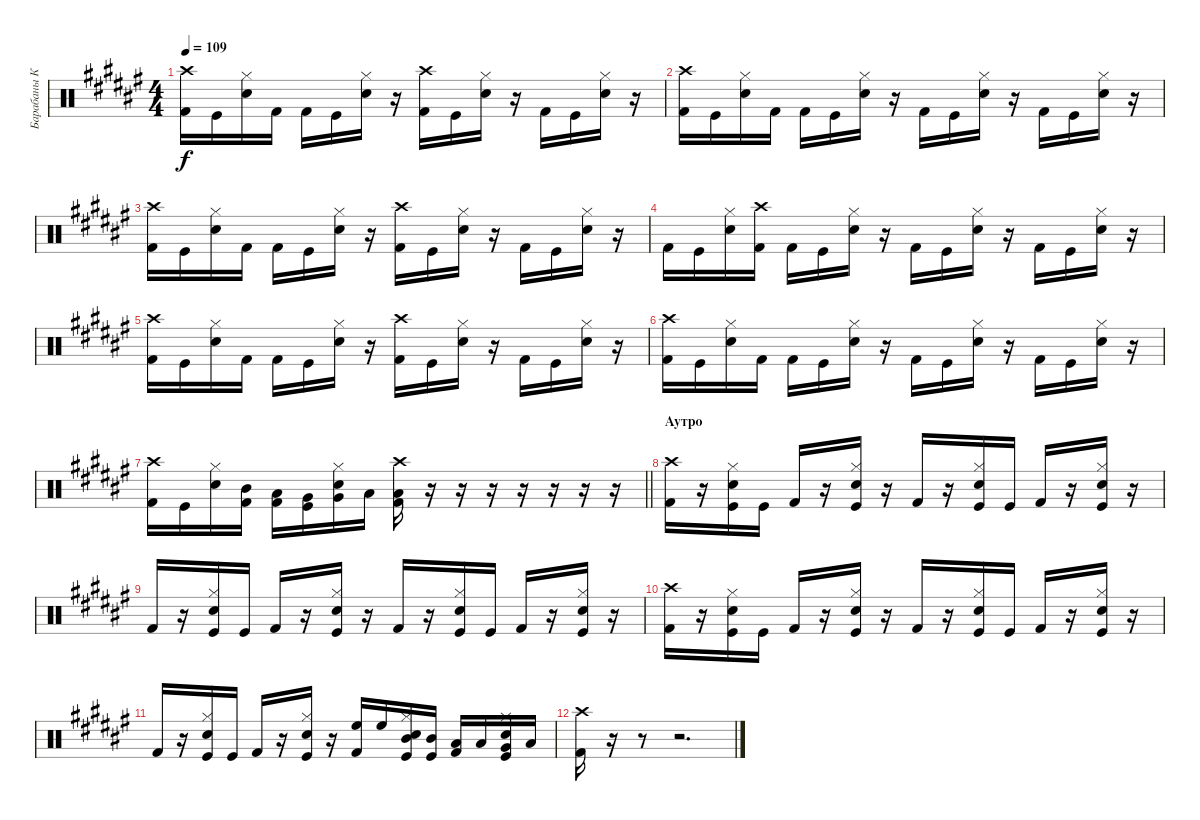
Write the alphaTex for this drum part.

\track ("Барабаны Кольян" "Барабаны К") {instrument percussion}
\staff {score}
\articulation defaults
\ts (4 4)
\tempo 109
\clef neutral
\ks f#
("Crash high (hit)" "Kick (hit) 2").16{dy f} "Kick (hit)".16 ("Hi-Hat (closed)" "Snare (hit) 2").16 "Kick (hit) 2".16 "Kick (hit) 2".16 "Kick (hit)".16 ("Hi-Hat (closed)" "Snare (hit) 2").16 r.16 ("Crash high (hit)" "Kick (hit) 2").16 "Kick (hit)".16 ("Hi-Hat (closed)" "Snare (hit) 2").16 r.16 "Kick (hit) 2".16 "Kick (hit)".16 ("Hi-Hat (closed)" "Snare (hit) 2").16 r.16 |
("Crash high (hit)" "Kick (hit) 2").16 "Kick (hit)".16 ("Hi-Hat (closed)" "Snare (hit) 2").16 "Kick (hit) 2".16 "Kick (hit) 2".16 "Kick (hit)".16 ("Hi-Hat (closed)" "Snare (hit) 2").16 r.16 "Kick (hit) 2".16 "Kick (hit)".16 ("Hi-Hat (closed)" "Snare (hit) 2").16 r.16 "Kick (hit) 2".16 "Kick (hit)".16 ("Hi-Hat (closed)" "Snare (hit) 2").16 r.16 |
("Crash high (hit)" "Kick (hit) 2").16 "Kick (hit)".16 ("Hi-Hat (closed)" "Snare (hit) 2").16 "Kick (hit) 2".16 "Kick (hit) 2".16 "Kick (hit)".16 ("Hi-Hat (closed)" "Snare (hit) 2").16 r.16 ("Crash high (hit)" "Kick (hit) 2").16 "Kick (hit)".16 ("Hi-Hat (closed)" "Snare (hit) 2").16 r.16 "Kick (hit) 2".16 "Kick (hit)".16 ("Hi-Hat (closed)" "Snare (hit) 2").16 r.16 |
"Kick (hit) 2".16 "Kick (hit)".16 ("Hi-Hat (closed)" "Snare (hit) 2").16 ("Crash high (hit)" "Kick (hit) 2").16 "Kick (hit) 2".16 "Kick (hit)".16 ("Hi-Hat (closed)" "Snare (hit) 2").16 r.16 "Kick (hit) 2".16 "Kick (hit)".16 ("Hi-Hat (closed)" "Snare (hit) 2").16 r.16 "Kick (hit) 2".16 "Kick (hit)".16 ("Hi-Hat (closed)" "Snare (hit) 2").16 r.16 |
("Crash high (hit)" "Kick (hit) 2").16 "Kick (hit)".16 ("Hi-Hat (closed)" "Snare (hit) 2").16 "Kick (hit) 2".16 "Kick (hit) 2".16 "Kick (hit)".16 ("Hi-Hat (closed)" "Snare (hit) 2").16 r.16 ("Crash high (hit)" "Kick (hit) 2").16 "Kick (hit)".16 ("Hi-Hat (closed)" "Snare (hit) 2").16 r.16 "Kick (hit) 2".16 "Kick (hit)".16 ("Hi-Hat (closed)" "Snare (hit) 2").16 r.16 |
("Crash high (hit)" "Kick (hit) 2").16 "Kick (hit)".16 ("Hi-Hat (closed)" "Snare (hit) 2").16 "Kick (hit) 2".16 "Kick (hit) 2".16 "Kick (hit)".16 ("Hi-Hat (closed)" "Snare (hit) 2").16 r.16 "Kick (hit) 2".16 "Kick (hit)".16 ("Hi-Hat (closed)" "Snare (hit) 2").16 r.16 "Kick (hit) 2".16 "Kick (hit)".16 ("Hi-Hat (closed)" "Snare (hit) 2").16 r.16 |
\barLineRight lightlight
("Crash high (hit)" "Kick (hit) 2").16 "Kick (hit)".16 ("Hi-Hat (closed)" "Snare (hit) 2").16 ("Mid Tom (hit)" "Kick (hit) 2").16 ("Low Tom (hit)" "Kick (hit) 2").16 ("Very Low Tom (hit)" "Kick (hit)").16 ("Hi-Hat (closed)" "Snare (hit) 2" "Very Low Tom (hit)").16 "Low Floor Tom (hit)".16 ("Crash high (hit)" "Low Floor Tom (hit)" "Kick (hit) 2").16 r.16 r.16 r.16 r.16 r.16 r.16 r.16 |
\section ("" "Аутро")
("Crash high (hit)" "Kick (hit) 2").16 r.16 ("Hi-Hat (closed)" "Snare (hit) 2" "Kick (hit)").16 "Kick (hit)".16 "Kick (hit) 2".16 r.16 ("Hi-Hat (closed)" "Snare (hit) 2" "Kick (hit)").16 r.16 "Kick (hit) 2".16 r.16 ("Hi-Hat (closed)" "Snare (hit) 2" "Kick (hit)").16 "Kick (hit)".16 "Kick (hit) 2".16 r.16 ("Hi-Hat (closed)" "Snare (hit) 2" "Kick (hit)").16 r.16 |
"Kick (hit) 2".16 r.16 ("Hi-Hat (closed)" "Snare (hit) 2" "Kick (hit)").16 "Kick (hit)".16 "Kick (hit) 2".16 r.16 ("Hi-Hat (closed)" "Snare (hit) 2" "Kick (hit)").16 r.16 "Kick (hit) 2".16 r.16 ("Hi-Hat (closed)" "Snare (hit) 2" "Kick (hit)").16 "Kick (hit)".16 "Kick (hit) 2".16 r.16 ("Hi-Hat (closed)" "Snare (hit) 2" "Kick (hit)").16 r.16 |
("Crash high (hit)" "Kick (hit) 2").16 r.16 ("Hi-Hat (closed)" "Snare (hit) 2" "Kick (hit)").16 "Kick (hit)".16 "Kick (hit) 2".16 r.16 ("Hi-Hat (closed)" "Snare (hit) 2" "Kick (hit)").16 r.16 "Kick (hit) 2".16 r.16 ("Hi-Hat (closed)" "Snare (hit) 2" "Kick (hit)").16 "Kick (hit)".16 "Kick (hit) 2".16 r.16 ("Hi-Hat (closed)" "Snare (hit) 2" "Kick (hit)").16 r.16 |
"Kick (hit) 2".16 r.16 ("Hi-Hat (closed)" "Snare (hit) 2" "Kick (hit)").16 "Kick (hit)".16 "Kick (hit) 2".16 r.16 ("Hi-Hat (closed)" "Snare (hit) 2" "Kick (hit)").16 r.16 ("High Floor Tom (hit)" "Kick (hit) 2").16 "High Floor Tom (hit)".16 ("Hi-Hat (closed)" "Snare (hit) 2" "Mid Tom (hit)" "Kick (hit)").16 ("Mid Tom (hit)" "Kick (hit)").16 ("Low Tom (hit)" "Kick (hit) 2").16 "Low Tom (hit)".16 ("Hi-Hat (closed)" "Snare (hit) 2" "Very Low Tom (hit)" "Kick (hit)").16 "Low Floor Tom (hit)".16 |
("Crash high (hit)" "Kick (hit) 2").16 r.16 r.8 r.2{d}
